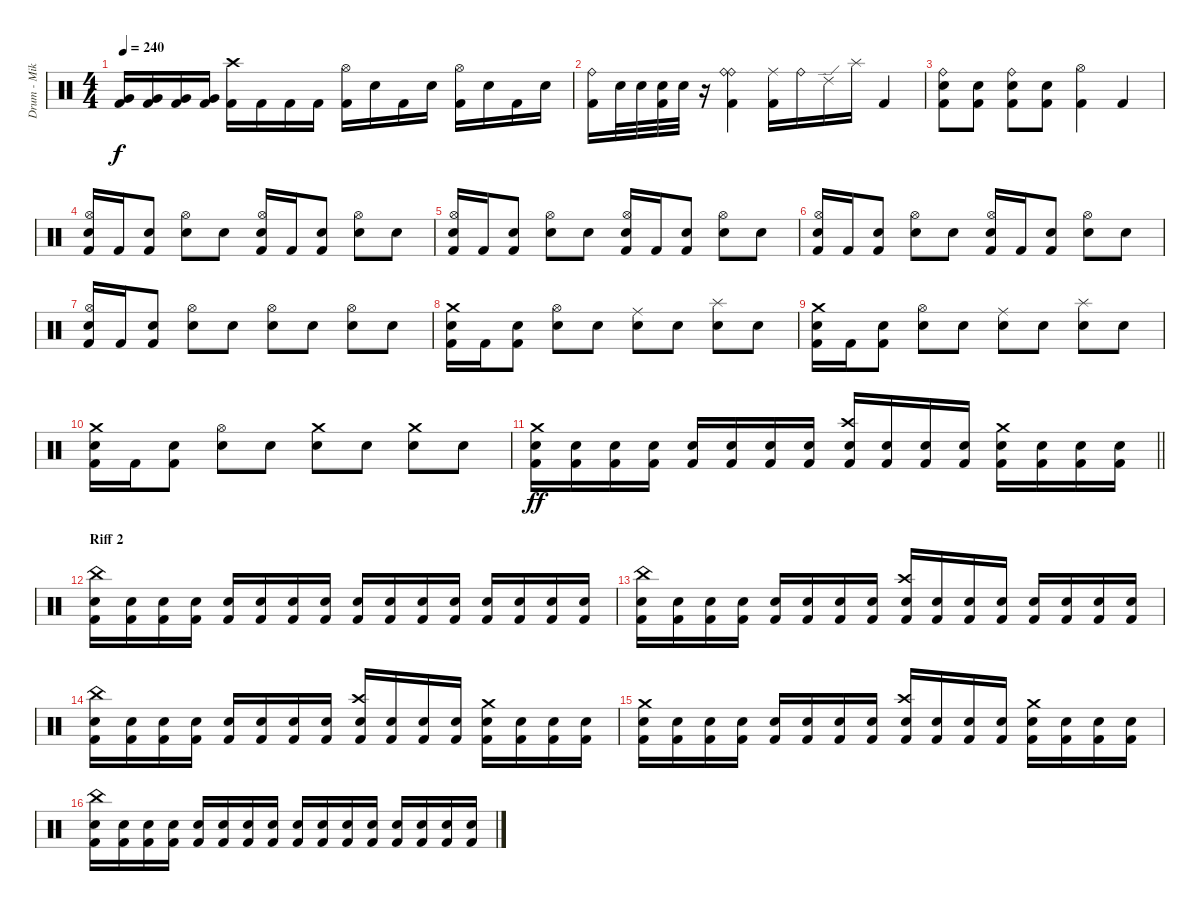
\track ("Drum - Mike Collins" "Drum - Mik") {instrument percussion}
\staff {score}
\articulation defaults
\ts (4 4)
\tempo 240
\clef neutral
\ks c
("Very Low Tom (hit)" "Kick (hit) 2").16{dy f} ("Very Low Tom (hit)" "Kick (hit) 2").16 ("Very Low Tom (hit)" "Kick (hit) 2").16 ("Very Low Tom (hit)" "Kick (hit) 2").16 ("Crash high (hit)" "Kick (hit) 2").16 "Kick (hit) 2".16 "Kick (hit) 2".16 "Kick (hit) 2".16 ("Hi-Hat (open)" "Kick (hit) 2").16 "Electric Snare (hit)".16 "Kick (hit) 2".16 "Electric Snare (hit)".16 ("Hi-Hat (open)" "Kick (hit) 2").16 "Electric Snare (hit)".16 "Kick (hit) 2".16 "Electric Snare (hit)".16 |
("Ride (bell)" "Kick (hit) 2").16 "Electric Snare (hit)".32 "Electric Snare (hit)".32 ("Electric Snare (hit)" "Kick (hit) 2").32 "Electric Snare (hit)".32 r.16 ("Ride (bell)" "Ride (bell)" "Kick (hit) 2").4 ("Ride (middle)" "Kick (hit) 2").16 "Ride (bell)".16 "Ride (edge) 2".16 "Splash (hit)".16 "Kick (hit) 2".4 |
("Ride (bell)" "Electric Snare (hit)" "Kick (hit) 2").8 ("Electric Snare (hit)" "Kick (hit) 2").8 ("Ride (bell)" "Electric Snare (hit)" "Kick (hit) 2").8 ("Electric Snare (hit)" "Kick (hit) 2").8 ("Hi-Hat (open)" "Kick (hit) 2").4 "Kick (hit) 2".4 |
("Hi-Hat (open)" "Electric Snare (hit)" "Kick (hit) 2").16 "Kick (hit) 2".16 ("Electric Snare (hit)" "Kick (hit) 2").8 ("Hi-Hat (open)" "Electric Snare (hit)").8 "Electric Snare (hit)".8 ("Hi-Hat (open)" "Electric Snare (hit)" "Kick (hit) 2").16 "Kick (hit) 2".16 ("Electric Snare (hit)" "Kick (hit) 2").8 ("Hi-Hat (open)" "Electric Snare (hit)").8 "Electric Snare (hit)".8 |
("Hi-Hat (open)" "Electric Snare (hit)" "Kick (hit) 2").16 "Kick (hit) 2".16 ("Electric Snare (hit)" "Kick (hit) 2").8 ("Hi-Hat (open)" "Electric Snare (hit)").8 "Electric Snare (hit)".8 ("Hi-Hat (open)" "Electric Snare (hit)" "Kick (hit) 2").16 "Kick (hit) 2".16 ("Electric Snare (hit)" "Kick (hit) 2").8 ("Hi-Hat (open)" "Electric Snare (hit)").8 "Electric Snare (hit)".8 |
("Hi-Hat (open)" "Electric Snare (hit)" "Kick (hit) 2").16 "Kick (hit) 2".16 ("Electric Snare (hit)" "Kick (hit) 2").8 ("Hi-Hat (open)" "Electric Snare (hit)").8 "Electric Snare (hit)".8 ("Hi-Hat (open)" "Electric Snare (hit)" "Kick (hit) 2").16 "Kick (hit) 2".16 ("Electric Snare (hit)" "Kick (hit) 2").8 ("Hi-Hat (open)" "Electric Snare (hit)").8 "Electric Snare (hit)".8 |
("Hi-Hat (open)" "Electric Snare (hit)" "Kick (hit) 2").16 "Kick (hit) 2".16 ("Electric Snare (hit)" "Kick (hit) 2").8 ("Hi-Hat (open)" "Electric Snare (hit)").8 "Electric Snare (hit)".8 ("Hi-Hat (open)" "Electric Snare (hit)").8 "Electric Snare (hit)".8 ("Hi-Hat (open)" "Electric Snare (hit)").8 "Electric Snare (hit)".8 |
("Crash medium (hit)" "Electric Snare (hit)" "Kick (hit) 2").16 "Kick (hit) 2".16 ("Electric Snare (hit)" "Kick (hit) 2").8 ("Hi-Hat (open)" "Electric Snare (hit)").8 "Electric Snare (hit)".8 ("Ride (middle)" "Electric Snare (hit)").8 "Electric Snare (hit)".8 ("Splash (hit)" "Electric Snare (hit)").8 "Electric Snare (hit)".8 |
("Crash medium (hit)" "Electric Snare (hit)" "Kick (hit) 2").16 "Kick (hit) 2".16 ("Electric Snare (hit)" "Kick (hit) 2").8 ("Hi-Hat (open)" "Electric Snare (hit)").8 "Electric Snare (hit)".8 ("Ride (middle)" "Electric Snare (hit)").8 "Electric Snare (hit)".8 ("Splash (hit)" "Electric Snare (hit)").8 "Electric Snare (hit)".8 |
("Crash medium (hit)" "Electric Snare (hit)" "Kick (hit) 2").16 "Kick (hit) 2".16 ("Electric Snare (hit)" "Kick (hit) 2").8 ("Hi-Hat (open)" "Electric Snare (hit)").8 "Electric Snare (hit)".8 ("Crash medium (hit)" "Electric Snare (hit)").8 "Electric Snare (hit)".8 ("Crash medium (hit)" "Electric Snare (hit)").8 "Electric Snare (hit)".8 |
\barLineRight lightlight
("Crash medium (hit)" "Electric Snare (hit)" "Kick (hit) 2").16{dy ff} ("Electric Snare (hit)" "Kick (hit) 2").16 ("Electric Snare (hit)" "Kick (hit) 2").16 ("Electric Snare (hit)" "Kick (hit) 2").16 ("Electric Snare (hit)" "Kick (hit) 2").16 ("Electric Snare (hit)" "Kick (hit) 2").16 ("Electric Snare (hit)" "Kick (hit) 2").16 ("Electric Snare (hit)" "Kick (hit) 2").16 ("Crash high (hit)" "Electric Snare (hit)" "Kick (hit) 2").16 ("Electric Snare (hit)" "Kick (hit) 2").16 ("Electric Snare (hit)" "Kick (hit) 2").16 ("Electric Snare (hit)" "Kick (hit) 2").16 ("Crash medium (hit)" "Electric Snare (hit)" "Kick (hit) 2").16 ("Electric Snare (hit)" "Kick (hit) 2").16 ("Electric Snare (hit)" "Kick (hit) 2").16 ("Electric Snare (hit)" "Kick (hit) 2").16 |
\section ("" "Riff 2")
("China (hit)" "Electric Snare (hit)" "Kick (hit) 2").16 ("Electric Snare (hit)" "Kick (hit) 2").16 ("Electric Snare (hit)" "Kick (hit) 2").16 ("Electric Snare (hit)" "Kick (hit) 2").16 ("Electric Snare (hit)" "Kick (hit) 2").16 ("Electric Snare (hit)" "Kick (hit) 2").16 ("Electric Snare (hit)" "Kick (hit) 2").16 ("Electric Snare (hit)" "Kick (hit) 2").16 ("Electric Snare (hit)" "Kick (hit) 2").16 ("Electric Snare (hit)" "Kick (hit) 2").16 ("Electric Snare (hit)" "Kick (hit) 2").16 ("Electric Snare (hit)" "Kick (hit) 2").16 ("Electric Snare (hit)" "Kick (hit) 2").16 ("Electric Snare (hit)" "Kick (hit) 2").16 ("Electric Snare (hit)" "Kick (hit) 2").16 ("Electric Snare (hit)" "Kick (hit) 2").16 |
("China (hit)" "Electric Snare (hit)" "Kick (hit) 2").16 ("Electric Snare (hit)" "Kick (hit) 2").16 ("Electric Snare (hit)" "Kick (hit) 2").16 ("Electric Snare (hit)" "Kick (hit) 2").16 ("Electric Snare (hit)" "Kick (hit) 2").16 ("Electric Snare (hit)" "Kick (hit) 2").16 ("Electric Snare (hit)" "Kick (hit) 2").16 ("Electric Snare (hit)" "Kick (hit) 2").16 ("Crash high (hit)" "Electric Snare (hit)" "Kick (hit) 2").16 ("Electric Snare (hit)" "Kick (hit) 2").16 ("Electric Snare (hit)" "Kick (hit) 2").16 ("Electric Snare (hit)" "Kick (hit) 2").16 ("Electric Snare (hit)" "Kick (hit) 2").16 ("Electric Snare (hit)" "Kick (hit) 2").16 ("Electric Snare (hit)" "Kick (hit) 2").16 ("Electric Snare (hit)" "Kick (hit) 2").16 |
("China (hit)" "Electric Snare (hit)" "Kick (hit) 2").16 ("Electric Snare (hit)" "Kick (hit) 2").16 ("Electric Snare (hit)" "Kick (hit) 2").16 ("Electric Snare (hit)" "Kick (hit) 2").16 ("Electric Snare (hit)" "Kick (hit) 2").16 ("Electric Snare (hit)" "Kick (hit) 2").16 ("Electric Snare (hit)" "Kick (hit) 2").16 ("Electric Snare (hit)" "Kick (hit) 2").16 ("Crash high (hit)" "Electric Snare (hit)" "Kick (hit) 2").16 ("Electric Snare (hit)" "Kick (hit) 2").16 ("Electric Snare (hit)" "Kick (hit) 2").16 ("Electric Snare (hit)" "Kick (hit) 2").16 ("Crash medium (hit)" "Electric Snare (hit)" "Kick (hit) 2").16 ("Electric Snare (hit)" "Kick (hit) 2").16 ("Electric Snare (hit)" "Kick (hit) 2").16 ("Electric Snare (hit)" "Kick (hit) 2").16 |
("Crash medium (hit)" "Electric Snare (hit)" "Kick (hit) 2").16 ("Electric Snare (hit)" "Kick (hit) 2").16 ("Electric Snare (hit)" "Kick (hit) 2").16 ("Electric Snare (hit)" "Kick (hit) 2").16 ("Electric Snare (hit)" "Kick (hit) 2").16 ("Electric Snare (hit)" "Kick (hit) 2").16 ("Electric Snare (hit)" "Kick (hit) 2").16 ("Electric Snare (hit)" "Kick (hit) 2").16 ("Crash high (hit)" "Electric Snare (hit)" "Kick (hit) 2").16 ("Electric Snare (hit)" "Kick (hit) 2").16 ("Electric Snare (hit)" "Kick (hit) 2").16 ("Electric Snare (hit)" "Kick (hit) 2").16 ("Crash medium (hit)" "Electric Snare (hit)" "Kick (hit) 2").16 ("Electric Snare (hit)" "Kick (hit) 2").16 ("Electric Snare (hit)" "Kick (hit) 2").16 ("Electric Snare (hit)" "Kick (hit) 2").16 |
("China (hit)" "Electric Snare (hit)" "Kick (hit) 2").16 ("Electric Snare (hit)" "Kick (hit) 2").16 ("Electric Snare (hit)" "Kick (hit) 2").16 ("Electric Snare (hit)" "Kick (hit) 2").16 ("Electric Snare (hit)" "Kick (hit) 2").16 ("Electric Snare (hit)" "Kick (hit) 2").16 ("Electric Snare (hit)" "Kick (hit) 2").16 ("Electric Snare (hit)" "Kick (hit) 2").16 ("Electric Snare (hit)" "Kick (hit) 2").16 ("Electric Snare (hit)" "Kick (hit) 2").16 ("Electric Snare (hit)" "Kick (hit) 2").16 ("Electric Snare (hit)" "Kick (hit) 2").16 ("Electric Snare (hit)" "Kick (hit) 2").16 ("Electric Snare (hit)" "Kick (hit) 2").16 ("Electric Snare (hit)" "Kick (hit) 2").16 ("Electric Snare (hit)" "Kick (hit) 2").16
